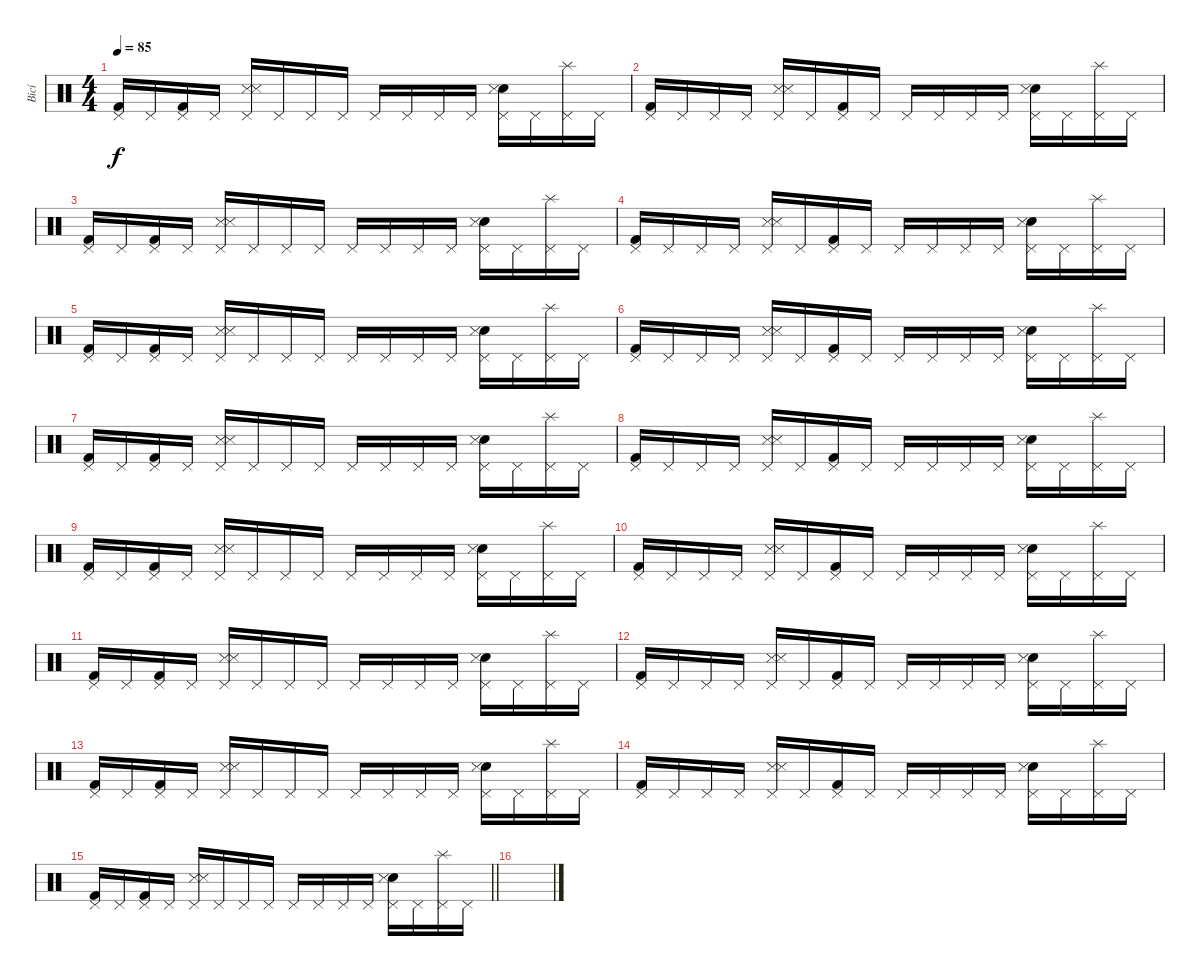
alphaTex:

\track ("Bicí" "Bicí") {instrument percussion}
\staff {score}
\articulation defaults
\ts (4 4)
\tempo 85
\clef neutral
\ks c
("Pedal Hi-Hat (hit)" "Kick (hit) 2").16{dy f} "Pedal Hi-Hat (hit)".16 ("Pedal Hi-Hat (hit)" "Kick (hit) 2").16 "Pedal Hi-Hat (hit)".16 ("Pedal Hi-Hat (hit)" "Snare (side stick) 3" "Snare (side stick) 3").16 "Pedal Hi-Hat (hit)".16 "Pedal Hi-Hat (hit)".16 "Pedal Hi-Hat (hit)".16 "Pedal Hi-Hat (hit)".16 "Pedal Hi-Hat (hit)".16 "Pedal Hi-Hat (hit)".16 "Pedal Hi-Hat (hit)".16 ("Pedal Hi-Hat (hit)" "Hand Clap (hit)" "Snare (side stick) 3").16 "Pedal Hi-Hat (hit)".16 ("Pedal Hi-Hat (hit)" "Splash (hit)").16 "Pedal Hi-Hat (hit)".16 |
("Pedal Hi-Hat (hit)" "Kick (hit) 2").16 "Pedal Hi-Hat (hit)".16 "Pedal Hi-Hat (hit)".16 "Pedal Hi-Hat (hit)".16 ("Pedal Hi-Hat (hit)" "Snare (side stick) 3" "Snare (side stick) 3").16 "Pedal Hi-Hat (hit)".16 ("Pedal Hi-Hat (hit)" "Kick (hit) 2").16 "Pedal Hi-Hat (hit)".16 "Pedal Hi-Hat (hit)".16 "Pedal Hi-Hat (hit)".16 "Pedal Hi-Hat (hit)".16 "Pedal Hi-Hat (hit)".16 ("Pedal Hi-Hat (hit)" "Hand Clap (hit)" "Snare (side stick) 3").16 "Pedal Hi-Hat (hit)".16 ("Pedal Hi-Hat (hit)" "Splash (hit)").16 "Pedal Hi-Hat (hit)".16 |
("Pedal Hi-Hat (hit)" "Kick (hit) 2").16 "Pedal Hi-Hat (hit)".16 ("Pedal Hi-Hat (hit)" "Kick (hit) 2").16 "Pedal Hi-Hat (hit)".16 ("Pedal Hi-Hat (hit)" "Snare (side stick) 3" "Snare (side stick) 3").16 "Pedal Hi-Hat (hit)".16 "Pedal Hi-Hat (hit)".16 "Pedal Hi-Hat (hit)".16 "Pedal Hi-Hat (hit)".16 "Pedal Hi-Hat (hit)".16 "Pedal Hi-Hat (hit)".16 "Pedal Hi-Hat (hit)".16 ("Pedal Hi-Hat (hit)" "Hand Clap (hit)" "Snare (side stick) 3").16 "Pedal Hi-Hat (hit)".16 ("Pedal Hi-Hat (hit)" "Splash (hit)").16 "Pedal Hi-Hat (hit)".16 |
("Pedal Hi-Hat (hit)" "Kick (hit) 2").16 "Pedal Hi-Hat (hit)".16 "Pedal Hi-Hat (hit)".16 "Pedal Hi-Hat (hit)".16 ("Pedal Hi-Hat (hit)" "Snare (side stick) 3" "Snare (side stick) 3").16 "Pedal Hi-Hat (hit)".16 ("Pedal Hi-Hat (hit)" "Kick (hit) 2").16 "Pedal Hi-Hat (hit)".16 "Pedal Hi-Hat (hit)".16 "Pedal Hi-Hat (hit)".16 "Pedal Hi-Hat (hit)".16 "Pedal Hi-Hat (hit)".16 ("Pedal Hi-Hat (hit)" "Hand Clap (hit)" "Snare (side stick) 3").16 "Pedal Hi-Hat (hit)".16 ("Pedal Hi-Hat (hit)" "Splash (hit)").16 "Pedal Hi-Hat (hit)".16 |
("Pedal Hi-Hat (hit)" "Kick (hit) 2").16 "Pedal Hi-Hat (hit)".16 ("Pedal Hi-Hat (hit)" "Kick (hit) 2").16 "Pedal Hi-Hat (hit)".16 ("Pedal Hi-Hat (hit)" "Snare (side stick) 3" "Snare (side stick) 3").16 "Pedal Hi-Hat (hit)".16 "Pedal Hi-Hat (hit)".16 "Pedal Hi-Hat (hit)".16 "Pedal Hi-Hat (hit)".16 "Pedal Hi-Hat (hit)".16 "Pedal Hi-Hat (hit)".16 "Pedal Hi-Hat (hit)".16 ("Pedal Hi-Hat (hit)" "Hand Clap (hit)" "Snare (side stick) 3").16 "Pedal Hi-Hat (hit)".16 ("Pedal Hi-Hat (hit)" "Splash (hit)").16 "Pedal Hi-Hat (hit)".16 |
("Pedal Hi-Hat (hit)" "Kick (hit) 2").16 "Pedal Hi-Hat (hit)".16 "Pedal Hi-Hat (hit)".16 "Pedal Hi-Hat (hit)".16 ("Pedal Hi-Hat (hit)" "Snare (side stick) 3" "Snare (side stick) 3").16 "Pedal Hi-Hat (hit)".16 ("Pedal Hi-Hat (hit)" "Kick (hit) 2").16 "Pedal Hi-Hat (hit)".16 "Pedal Hi-Hat (hit)".16 "Pedal Hi-Hat (hit)".16 "Pedal Hi-Hat (hit)".16 "Pedal Hi-Hat (hit)".16 ("Pedal Hi-Hat (hit)" "Hand Clap (hit)" "Snare (side stick) 3").16 "Pedal Hi-Hat (hit)".16 ("Pedal Hi-Hat (hit)" "Splash (hit)").16 "Pedal Hi-Hat (hit)".16 |
("Pedal Hi-Hat (hit)" "Kick (hit) 2").16 "Pedal Hi-Hat (hit)".16 ("Pedal Hi-Hat (hit)" "Kick (hit) 2").16 "Pedal Hi-Hat (hit)".16 ("Pedal Hi-Hat (hit)" "Snare (side stick) 3" "Snare (side stick) 3").16 "Pedal Hi-Hat (hit)".16 "Pedal Hi-Hat (hit)".16 "Pedal Hi-Hat (hit)".16 "Pedal Hi-Hat (hit)".16 "Pedal Hi-Hat (hit)".16 "Pedal Hi-Hat (hit)".16 "Pedal Hi-Hat (hit)".16 ("Pedal Hi-Hat (hit)" "Hand Clap (hit)" "Snare (side stick) 3").16 "Pedal Hi-Hat (hit)".16 ("Pedal Hi-Hat (hit)" "Splash (hit)").16 "Pedal Hi-Hat (hit)".16 |
("Pedal Hi-Hat (hit)" "Kick (hit) 2").16 "Pedal Hi-Hat (hit)".16 "Pedal Hi-Hat (hit)".16 "Pedal Hi-Hat (hit)".16 ("Pedal Hi-Hat (hit)" "Snare (side stick) 3" "Snare (side stick) 3").16 "Pedal Hi-Hat (hit)".16 ("Pedal Hi-Hat (hit)" "Kick (hit) 2").16 "Pedal Hi-Hat (hit)".16 "Pedal Hi-Hat (hit)".16 "Pedal Hi-Hat (hit)".16 "Pedal Hi-Hat (hit)".16 "Pedal Hi-Hat (hit)".16 ("Pedal Hi-Hat (hit)" "Hand Clap (hit)" "Snare (side stick) 3").16 "Pedal Hi-Hat (hit)".16 ("Pedal Hi-Hat (hit)" "Splash (hit)").16 "Pedal Hi-Hat (hit)".16 |
("Pedal Hi-Hat (hit)" "Kick (hit) 2").16 "Pedal Hi-Hat (hit)".16 ("Pedal Hi-Hat (hit)" "Kick (hit) 2").16 "Pedal Hi-Hat (hit)".16 ("Pedal Hi-Hat (hit)" "Snare (side stick) 3" "Snare (side stick) 3").16 "Pedal Hi-Hat (hit)".16 "Pedal Hi-Hat (hit)".16 "Pedal Hi-Hat (hit)".16 "Pedal Hi-Hat (hit)".16 "Pedal Hi-Hat (hit)".16 "Pedal Hi-Hat (hit)".16 "Pedal Hi-Hat (hit)".16 ("Pedal Hi-Hat (hit)" "Hand Clap (hit)" "Snare (side stick) 3").16 "Pedal Hi-Hat (hit)".16 ("Pedal Hi-Hat (hit)" "Splash (hit)").16 "Pedal Hi-Hat (hit)".16 |
("Pedal Hi-Hat (hit)" "Kick (hit) 2").16 "Pedal Hi-Hat (hit)".16 "Pedal Hi-Hat (hit)".16 "Pedal Hi-Hat (hit)".16 ("Pedal Hi-Hat (hit)" "Snare (side stick) 3" "Snare (side stick) 3").16 "Pedal Hi-Hat (hit)".16 ("Pedal Hi-Hat (hit)" "Kick (hit) 2").16 "Pedal Hi-Hat (hit)".16 "Pedal Hi-Hat (hit)".16 "Pedal Hi-Hat (hit)".16 "Pedal Hi-Hat (hit)".16 "Pedal Hi-Hat (hit)".16 ("Pedal Hi-Hat (hit)" "Hand Clap (hit)" "Snare (side stick) 3").16 "Pedal Hi-Hat (hit)".16 ("Pedal Hi-Hat (hit)" "Splash (hit)").16 "Pedal Hi-Hat (hit)".16 |
("Pedal Hi-Hat (hit)" "Kick (hit) 2").16 "Pedal Hi-Hat (hit)".16 ("Pedal Hi-Hat (hit)" "Kick (hit) 2").16 "Pedal Hi-Hat (hit)".16 ("Pedal Hi-Hat (hit)" "Snare (side stick) 3" "Snare (side stick) 3").16 "Pedal Hi-Hat (hit)".16 "Pedal Hi-Hat (hit)".16 "Pedal Hi-Hat (hit)".16 "Pedal Hi-Hat (hit)".16 "Pedal Hi-Hat (hit)".16 "Pedal Hi-Hat (hit)".16 "Pedal Hi-Hat (hit)".16 ("Pedal Hi-Hat (hit)" "Hand Clap (hit)" "Snare (side stick) 3").16 "Pedal Hi-Hat (hit)".16 ("Pedal Hi-Hat (hit)" "Splash (hit)").16 "Pedal Hi-Hat (hit)".16 |
("Pedal Hi-Hat (hit)" "Kick (hit) 2").16 "Pedal Hi-Hat (hit)".16 "Pedal Hi-Hat (hit)".16 "Pedal Hi-Hat (hit)".16 ("Pedal Hi-Hat (hit)" "Snare (side stick) 3" "Snare (side stick) 3").16 "Pedal Hi-Hat (hit)".16 ("Pedal Hi-Hat (hit)" "Kick (hit) 2").16 "Pedal Hi-Hat (hit)".16 "Pedal Hi-Hat (hit)".16 "Pedal Hi-Hat (hit)".16 "Pedal Hi-Hat (hit)".16 "Pedal Hi-Hat (hit)".16 ("Pedal Hi-Hat (hit)" "Hand Clap (hit)" "Snare (side stick) 3").16 "Pedal Hi-Hat (hit)".16 ("Pedal Hi-Hat (hit)" "Splash (hit)").16 "Pedal Hi-Hat (hit)".16 |
("Pedal Hi-Hat (hit)" "Kick (hit) 2").16 "Pedal Hi-Hat (hit)".16 ("Pedal Hi-Hat (hit)" "Kick (hit) 2").16 "Pedal Hi-Hat (hit)".16 ("Pedal Hi-Hat (hit)" "Snare (side stick) 3" "Snare (side stick) 3").16 "Pedal Hi-Hat (hit)".16 "Pedal Hi-Hat (hit)".16 "Pedal Hi-Hat (hit)".16 "Pedal Hi-Hat (hit)".16 "Pedal Hi-Hat (hit)".16 "Pedal Hi-Hat (hit)".16 "Pedal Hi-Hat (hit)".16 ("Pedal Hi-Hat (hit)" "Hand Clap (hit)" "Snare (side stick) 3").16 "Pedal Hi-Hat (hit)".16 ("Pedal Hi-Hat (hit)" "Splash (hit)").16 "Pedal Hi-Hat (hit)".16 |
("Pedal Hi-Hat (hit)" "Kick (hit) 2").16 "Pedal Hi-Hat (hit)".16 "Pedal Hi-Hat (hit)".16 "Pedal Hi-Hat (hit)".16 ("Pedal Hi-Hat (hit)" "Snare (side stick) 3" "Snare (side stick) 3").16 "Pedal Hi-Hat (hit)".16 ("Pedal Hi-Hat (hit)" "Kick (hit) 2").16 "Pedal Hi-Hat (hit)".16 "Pedal Hi-Hat (hit)".16 "Pedal Hi-Hat (hit)".16 "Pedal Hi-Hat (hit)".16 "Pedal Hi-Hat (hit)".16 ("Pedal Hi-Hat (hit)" "Hand Clap (hit)" "Snare (side stick) 3").16 "Pedal Hi-Hat (hit)".16 ("Pedal Hi-Hat (hit)" "Splash (hit)").16 "Pedal Hi-Hat (hit)".16 |
\barLineRight lightlight
("Pedal Hi-Hat (hit)" "Kick (hit) 2").16 "Pedal Hi-Hat (hit)".16 ("Pedal Hi-Hat (hit)" "Kick (hit) 2").16 "Pedal Hi-Hat (hit)".16 ("Pedal Hi-Hat (hit)" "Snare (side stick) 3" "Snare (side stick) 3").16 "Pedal Hi-Hat (hit)".16 "Pedal Hi-Hat (hit)".16 "Pedal Hi-Hat (hit)".16 "Pedal Hi-Hat (hit)".16 "Pedal Hi-Hat (hit)".16 "Pedal Hi-Hat (hit)".16 "Pedal Hi-Hat (hit)".16 ("Pedal Hi-Hat (hit)" "Hand Clap (hit)" "Snare (side stick) 3").16 "Pedal Hi-Hat (hit)".16 ("Pedal Hi-Hat (hit)" "Splash (hit)").16 "Pedal Hi-Hat (hit)".16 |
\section ("" "")
